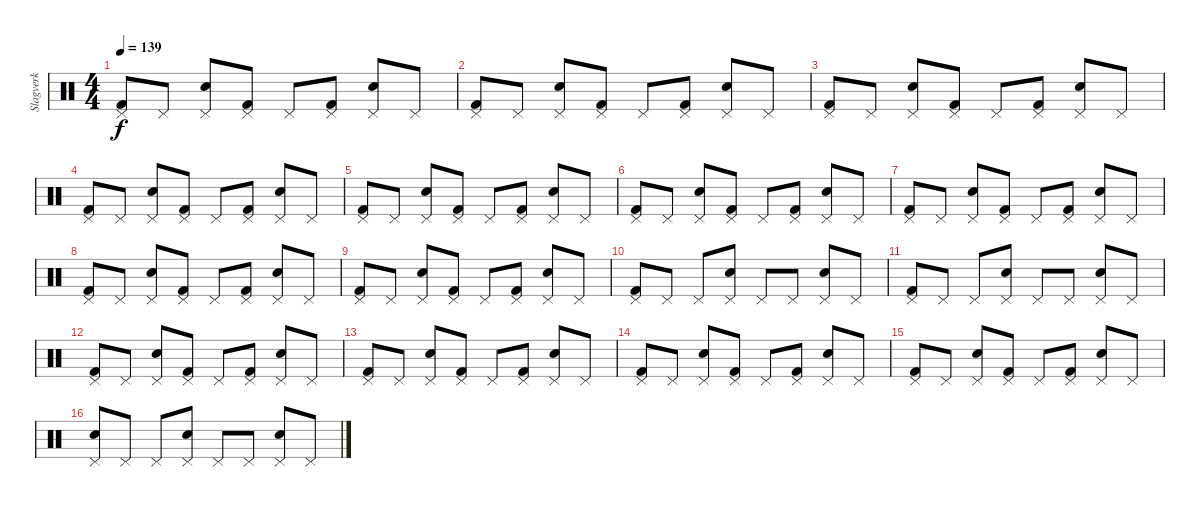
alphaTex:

\track ("Slagverk" "Slagverk") {instrument percussion}
\staff {score}
\articulation defaults
\ts (4 4)
\tempo 139
\clef neutral
\ks c
("Pedal Hi-Hat (hit)" "Kick (hit) 2").8{dy f} "Pedal Hi-Hat (hit)".8 ("Pedal Hi-Hat (hit)" "Snare (hit) 2").8 ("Pedal Hi-Hat (hit)" "Kick (hit) 2").8 "Pedal Hi-Hat (hit)".8 ("Pedal Hi-Hat (hit)" "Kick (hit) 2").8 ("Pedal Hi-Hat (hit)" "Snare (hit) 2").8 "Pedal Hi-Hat (hit)".8 |
("Pedal Hi-Hat (hit)" "Kick (hit) 2").8 "Pedal Hi-Hat (hit)".8 ("Pedal Hi-Hat (hit)" "Snare (hit) 2").8 ("Pedal Hi-Hat (hit)" "Kick (hit) 2").8 "Pedal Hi-Hat (hit)".8 ("Pedal Hi-Hat (hit)" "Kick (hit) 2").8 ("Pedal Hi-Hat (hit)" "Snare (hit) 2").8 "Pedal Hi-Hat (hit)".8 |
("Pedal Hi-Hat (hit)" "Kick (hit) 2").8 "Pedal Hi-Hat (hit)".8 ("Pedal Hi-Hat (hit)" "Snare (hit) 2").8 ("Pedal Hi-Hat (hit)" "Kick (hit) 2").8 "Pedal Hi-Hat (hit)".8 ("Pedal Hi-Hat (hit)" "Kick (hit) 2").8 ("Pedal Hi-Hat (hit)" "Snare (hit) 2").8 "Pedal Hi-Hat (hit)".8 |
("Pedal Hi-Hat (hit)" "Kick (hit) 2").8 "Pedal Hi-Hat (hit)".8 ("Pedal Hi-Hat (hit)" "Snare (hit) 2").8 ("Pedal Hi-Hat (hit)" "Kick (hit) 2").8 "Pedal Hi-Hat (hit)".8 ("Pedal Hi-Hat (hit)" "Kick (hit) 2").8 ("Pedal Hi-Hat (hit)" "Snare (hit) 2").8 "Pedal Hi-Hat (hit)".8 |
("Pedal Hi-Hat (hit)" "Kick (hit) 2").8 "Pedal Hi-Hat (hit)".8 ("Pedal Hi-Hat (hit)" "Snare (hit) 2").8 ("Pedal Hi-Hat (hit)" "Kick (hit) 2").8 "Pedal Hi-Hat (hit)".8 ("Pedal Hi-Hat (hit)" "Kick (hit) 2").8 ("Pedal Hi-Hat (hit)" "Snare (hit) 2").8 "Pedal Hi-Hat (hit)".8 |
("Pedal Hi-Hat (hit)" "Kick (hit) 2").8 "Pedal Hi-Hat (hit)".8 ("Pedal Hi-Hat (hit)" "Snare (hit) 2").8 ("Pedal Hi-Hat (hit)" "Kick (hit) 2").8 "Pedal Hi-Hat (hit)".8 ("Pedal Hi-Hat (hit)" "Kick (hit) 2").8 ("Pedal Hi-Hat (hit)" "Snare (hit) 2").8 "Pedal Hi-Hat (hit)".8 |
("Pedal Hi-Hat (hit)" "Kick (hit) 2").8 "Pedal Hi-Hat (hit)".8 ("Pedal Hi-Hat (hit)" "Snare (hit) 2").8 ("Pedal Hi-Hat (hit)" "Kick (hit) 2").8 "Pedal Hi-Hat (hit)".8 ("Pedal Hi-Hat (hit)" "Kick (hit) 2").8 ("Pedal Hi-Hat (hit)" "Snare (hit) 2").8 "Pedal Hi-Hat (hit)".8 |
("Pedal Hi-Hat (hit)" "Kick (hit) 2").8 "Pedal Hi-Hat (hit)".8 ("Pedal Hi-Hat (hit)" "Snare (hit) 2").8 ("Pedal Hi-Hat (hit)" "Kick (hit) 2").8 "Pedal Hi-Hat (hit)".8 ("Pedal Hi-Hat (hit)" "Kick (hit) 2").8 ("Pedal Hi-Hat (hit)" "Snare (hit) 2").8 "Pedal Hi-Hat (hit)".8 |
("Pedal Hi-Hat (hit)" "Kick (hit) 2").8 "Pedal Hi-Hat (hit)".8 ("Pedal Hi-Hat (hit)" "Snare (hit) 2").8 ("Pedal Hi-Hat (hit)" "Kick (hit) 2").8 "Pedal Hi-Hat (hit)".8 ("Pedal Hi-Hat (hit)" "Kick (hit) 2").8 ("Pedal Hi-Hat (hit)" "Snare (hit) 2").8 "Pedal Hi-Hat (hit)".8 |
("Pedal Hi-Hat (hit)" "Kick (hit) 2").8 "Pedal Hi-Hat (hit)".8 "Pedal Hi-Hat (hit)".8 ("Pedal Hi-Hat (hit)" "Snare (hit) 2").8 "Pedal Hi-Hat (hit)".8 "Pedal Hi-Hat (hit)".8 ("Pedal Hi-Hat (hit)" "Snare (hit) 2").8 "Pedal Hi-Hat (hit)".8 |
("Pedal Hi-Hat (hit)" "Kick (hit) 2").8 "Pedal Hi-Hat (hit)".8 "Pedal Hi-Hat (hit)".8 ("Pedal Hi-Hat (hit)" "Snare (hit) 2").8 "Pedal Hi-Hat (hit)".8 "Pedal Hi-Hat (hit)".8 ("Pedal Hi-Hat (hit)" "Snare (hit) 2").8 "Pedal Hi-Hat (hit)".8 |
("Pedal Hi-Hat (hit)" "Kick (hit) 2").8 "Pedal Hi-Hat (hit)".8 ("Pedal Hi-Hat (hit)" "Snare (hit) 2").8 ("Pedal Hi-Hat (hit)" "Kick (hit) 2").8 "Pedal Hi-Hat (hit)".8 ("Pedal Hi-Hat (hit)" "Kick (hit) 2").8 ("Pedal Hi-Hat (hit)" "Snare (hit) 2").8 "Pedal Hi-Hat (hit)".8 |
("Pedal Hi-Hat (hit)" "Kick (hit) 2").8 "Pedal Hi-Hat (hit)".8 ("Pedal Hi-Hat (hit)" "Snare (hit) 2").8 ("Pedal Hi-Hat (hit)" "Kick (hit) 2").8 "Pedal Hi-Hat (hit)".8 ("Pedal Hi-Hat (hit)" "Kick (hit) 2").8 ("Pedal Hi-Hat (hit)" "Snare (hit) 2").8 "Pedal Hi-Hat (hit)".8 |
("Pedal Hi-Hat (hit)" "Kick (hit) 2").8 "Pedal Hi-Hat (hit)".8 ("Pedal Hi-Hat (hit)" "Snare (hit) 2").8 ("Pedal Hi-Hat (hit)" "Kick (hit) 2").8 "Pedal Hi-Hat (hit)".8 ("Pedal Hi-Hat (hit)" "Kick (hit) 2").8 ("Pedal Hi-Hat (hit)" "Snare (hit) 2").8 "Pedal Hi-Hat (hit)".8 |
("Pedal Hi-Hat (hit)" "Kick (hit) 2").8 "Pedal Hi-Hat (hit)".8 ("Pedal Hi-Hat (hit)" "Snare (hit) 2").8 ("Pedal Hi-Hat (hit)" "Kick (hit) 2").8 "Pedal Hi-Hat (hit)".8 ("Pedal Hi-Hat (hit)" "Kick (hit) 2").8 ("Pedal Hi-Hat (hit)" "Snare (hit) 2").8 "Pedal Hi-Hat (hit)".8 |
("Pedal Hi-Hat (hit)" "Snare (hit) 2").8 "Pedal Hi-Hat (hit)".8 "Pedal Hi-Hat (hit)".8 ("Pedal Hi-Hat (hit)" "Snare (hit) 2").8 "Pedal Hi-Hat (hit)".8 "Pedal Hi-Hat (hit)".8 ("Pedal Hi-Hat (hit)" "Snare (hit) 2").8 "Pedal Hi-Hat (hit)".8
